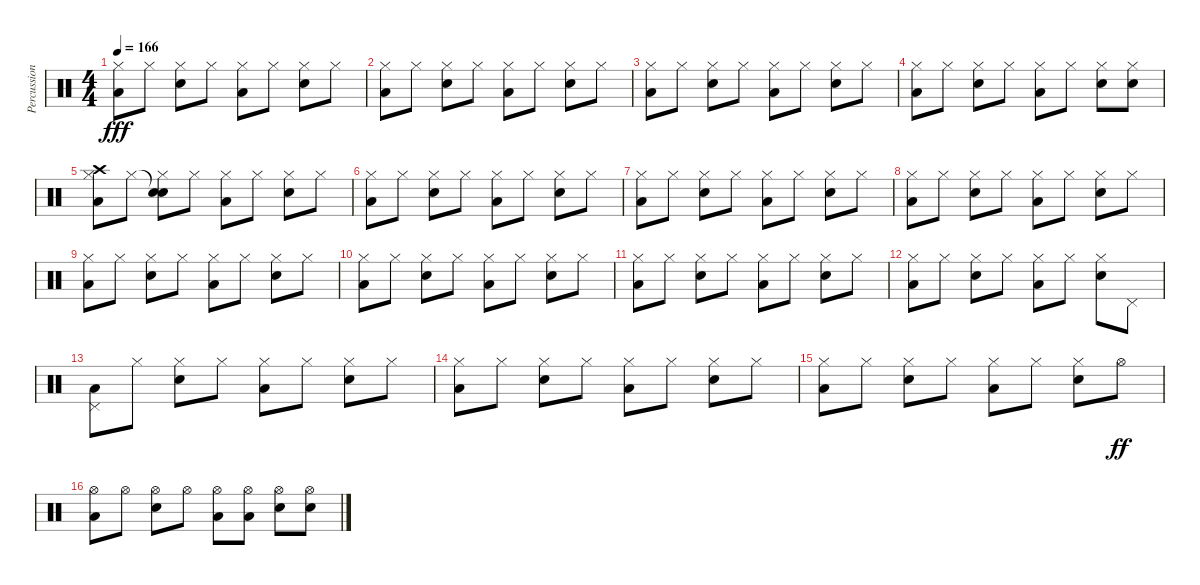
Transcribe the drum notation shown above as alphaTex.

\track ("Percussions" "Percussion") {instrument percussion}
\staff {score}
\articulation defaults
\ts (4 4)
\tempo 166
\clef neutral
\ks c
("Low Tom (hit)" "Hi-Hat (closed)").8{dy fff} "Hi-Hat (closed)".8 ("Snare (hit) 2" "Hi-Hat (closed)").8 "Hi-Hat (closed)".8 ("Low Tom (hit)" "Hi-Hat (closed)").8 "Hi-Hat (closed)".8 ("Snare (hit) 2" "Hi-Hat (closed)").8 "Hi-Hat (closed)".8 |
("Low Tom (hit)" "Hi-Hat (closed)").8 "Hi-Hat (closed)".8 ("Snare (hit) 2" "Hi-Hat (closed)").8 "Hi-Hat (closed)".8 ("Low Tom (hit)" "Hi-Hat (closed)").8 "Hi-Hat (closed)".8 ("Snare (hit) 2" "Hi-Hat (closed)").8 "Hi-Hat (closed)".8 |
("Low Tom (hit)" "Hi-Hat (closed)").8 "Hi-Hat (closed)".8 ("Snare (hit) 2" "Hi-Hat (closed)").8 "Hi-Hat (closed)".8 ("Low Tom (hit)" "Hi-Hat (closed)").8 "Hi-Hat (closed)".8 ("Snare (hit) 2" "Hi-Hat (closed)").8 "Hi-Hat (closed)".8 |
("Low Tom (hit)" "Hi-Hat (closed)").8 "Hi-Hat (closed)".8 ("Snare (hit) 2" "Hi-Hat (closed)").8 "Hi-Hat (closed)".8 ("Low Tom (hit)" "Hi-Hat (closed)").8 "Hi-Hat (closed)".8 ("Snare (hit) 2" "Hi-Hat (closed)").8 ("Snare (hit) 2" "Hi-Hat (closed)").8 |
("Crash high (hit)" "Low Tom (hit)" "Hi-Hat (closed)").8 "Hi-Hat (closed)".8 ("Snare (hit)"{t} "Snare (hit) 2" "Hi-Hat (closed)").8 "Hi-Hat (closed)".8 ("Low Tom (hit)" "Hi-Hat (closed)").8 "Hi-Hat (closed)".8 ("Snare (hit) 2" "Hi-Hat (closed)").8 "Hi-Hat (closed)".8 |
("Low Tom (hit)" "Hi-Hat (closed)").8 "Hi-Hat (closed)".8 ("Snare (hit) 2" "Hi-Hat (closed)").8 "Hi-Hat (closed)".8 ("Low Tom (hit)" "Hi-Hat (closed)").8 "Hi-Hat (closed)".8 ("Snare (hit) 2" "Hi-Hat (closed)").8 "Hi-Hat (closed)".8 |
("Low Tom (hit)" "Hi-Hat (closed)").8 "Hi-Hat (closed)".8 ("Snare (hit) 2" "Hi-Hat (closed)").8 "Hi-Hat (closed)".8 ("Low Tom (hit)" "Hi-Hat (closed)").8 "Hi-Hat (closed)".8 ("Snare (hit) 2" "Hi-Hat (closed)").8 "Hi-Hat (closed)".8 |
("Low Tom (hit)" "Hi-Hat (closed)").8 "Hi-Hat (closed)".8 ("Snare (hit) 2" "Hi-Hat (closed)").8 "Hi-Hat (closed)".8 ("Low Tom (hit)" "Hi-Hat (closed)").8 "Hi-Hat (closed)".8 ("Snare (hit) 2" "Hi-Hat (closed)").8 "Hi-Hat (closed)".8 |
("Low Tom (hit)" "Hi-Hat (closed)").8 "Hi-Hat (closed)".8 ("Snare (hit) 2" "Hi-Hat (closed)").8 "Hi-Hat (closed)".8 ("Low Tom (hit)" "Hi-Hat (closed)").8 "Hi-Hat (closed)".8 ("Snare (hit) 2" "Hi-Hat (closed)").8 "Hi-Hat (closed)".8 |
("Low Tom (hit)" "Hi-Hat (closed)").8 "Hi-Hat (closed)".8 ("Snare (hit) 2" "Hi-Hat (closed)").8 "Hi-Hat (closed)".8 ("Low Tom (hit)" "Hi-Hat (closed)").8 "Hi-Hat (closed)".8 ("Snare (hit) 2" "Hi-Hat (closed)").8 "Hi-Hat (closed)".8 |
("Low Tom (hit)" "Hi-Hat (closed)").8 "Hi-Hat (closed)".8 ("Snare (hit) 2" "Hi-Hat (closed)").8 "Hi-Hat (closed)".8 ("Low Tom (hit)" "Hi-Hat (closed)").8 "Hi-Hat (closed)".8 ("Snare (hit) 2" "Hi-Hat (closed)").8 "Hi-Hat (closed)".8 |
("Low Tom (hit)" "Hi-Hat (closed)").8 "Hi-Hat (closed)".8 ("Snare (hit) 2" "Hi-Hat (closed)").8 "Hi-Hat (closed)".8 ("Low Tom (hit)" "Hi-Hat (closed)").8 "Hi-Hat (closed)".8 ("Snare (hit) 2" "Hi-Hat (closed)").8 "Pedal Hi-Hat (hit)".8 |
("Low Tom (hit)" "Pedal Hi-Hat (hit)").8 "Hi-Hat (closed)".8 ("Snare (hit) 2" "Hi-Hat (closed)").8 "Hi-Hat (closed)".8 ("Low Tom (hit)" "Hi-Hat (closed)").8 "Hi-Hat (closed)".8 ("Snare (hit) 2" "Hi-Hat (closed)").8 "Hi-Hat (closed)".8 |
("Low Tom (hit)" "Hi-Hat (closed)").8 "Hi-Hat (closed)".8 ("Snare (hit) 2" "Hi-Hat (closed)").8 "Hi-Hat (closed)".8 ("Low Tom (hit)" "Hi-Hat (closed)").8 "Hi-Hat (closed)".8 ("Snare (hit) 2" "Hi-Hat (closed)").8 "Hi-Hat (closed)".8 |
("Low Tom (hit)" "Hi-Hat (closed)").8 "Hi-Hat (closed)".8 ("Snare (hit) 2" "Hi-Hat (closed)").8 "Hi-Hat (closed)".8 ("Low Tom (hit)" "Hi-Hat (closed)").8 "Hi-Hat (closed)".8 ("Snare (hit) 2" "Hi-Hat (closed)").8 "Hi-Hat (open)".8{dy ff} |
("Low Tom (hit)" "Hi-Hat (open)").8 "Hi-Hat (open)".8 ("Snare (hit) 2" "Hi-Hat (open)").8 "Hi-Hat (open)".8 ("Low Tom (hit)" "Hi-Hat (open)").8 ("Low Tom (hit)" "Hi-Hat (open)").8 ("Snare (hit) 2" "Hi-Hat (open)").8 ("Snare (hit) 2" "Hi-Hat (open)").8
